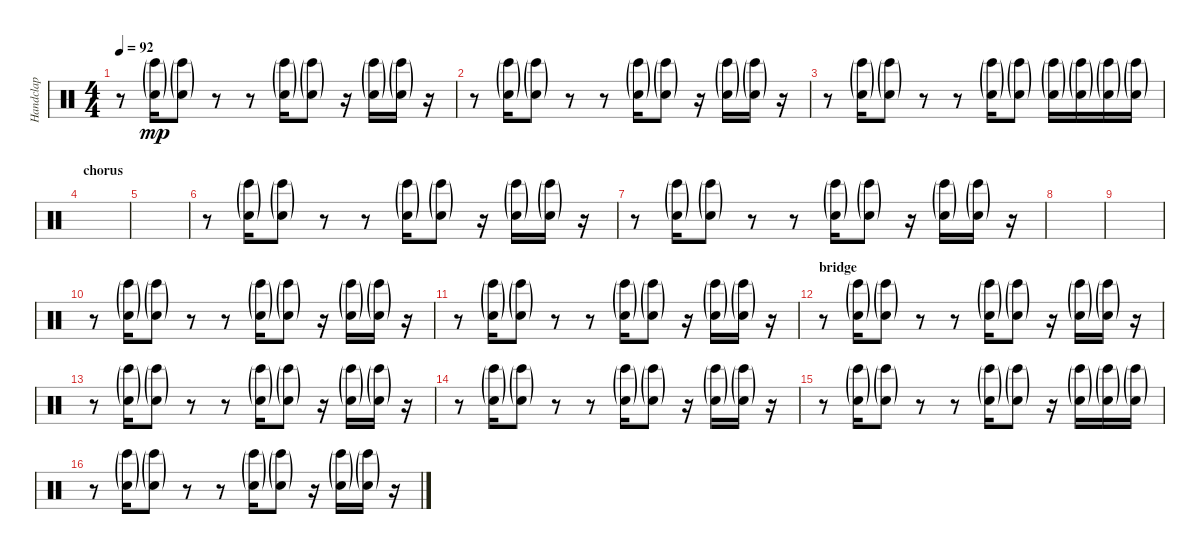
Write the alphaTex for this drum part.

\track ("Handclap" "Handclap") {instrument percussion}
\staff {score}
\articulation defaults
\ts (4 4)
\tempo 92
\clef neutral
\ks c
r.8{dy mp} ("Hand Clap (hit)"{g} "Bongo High (hit)"{g}).16 ("Hand Clap (hit)"{g} "Bongo High (hit)"{g}).8 r.8 r.8 ("Hand Clap (hit)"{g} "Bongo High (hit)"{g}).16 ("Hand Clap (hit)"{g} "Bongo High (hit)"{g}).8 r.16 ("Hand Clap (hit)"{g} "Bongo High (hit)"{g}).16 ("Hand Clap (hit)"{g} "Bongo High (hit)"{g}).16 r.16 |
r.8 ("Hand Clap (hit)"{g} "Bongo High (hit)"{g}).16 ("Hand Clap (hit)"{g} "Bongo High (hit)"{g}).8 r.8 r.8 ("Hand Clap (hit)"{g} "Bongo High (hit)"{g}).16 ("Hand Clap (hit)"{g} "Bongo High (hit)"{g}).8 r.16 ("Hand Clap (hit)"{g} "Bongo High (hit)"{g}).16 ("Hand Clap (hit)"{g} "Bongo High (hit)"{g}).16 r.16 |
r.8 ("Hand Clap (hit)"{g} "Bongo High (hit)"{g}).16 ("Hand Clap (hit)"{g} "Bongo High (hit)"{g}).8 r.8 r.8 ("Hand Clap (hit)"{g} "Bongo High (hit)"{g}).16 ("Hand Clap (hit)"{g} "Bongo High (hit)"{g}).8 ("Hand Clap (hit)"{g} "Bongo High (hit)"{g}).16 ("Hand Clap (hit)"{g} "Bongo High (hit)"{g}).16 ("Hand Clap (hit)"{g} "Bongo High (hit)"{g}).16 ("Hand Clap (hit)"{g} "Bongo High (hit)"{g}).16 |
\section ("" "chorus")
|
|
r.8 ("Hand Clap (hit)"{g} "Bongo High (hit)"{g}).16 ("Hand Clap (hit)"{g} "Bongo High (hit)"{g}).8 r.8 r.8 ("Hand Clap (hit)"{g} "Bongo High (hit)"{g}).16 ("Hand Clap (hit)"{g} "Bongo High (hit)"{g}).8 r.16 ("Hand Clap (hit)"{g} "Bongo High (hit)"{g}).16 ("Hand Clap (hit)"{g} "Bongo High (hit)"{g}).16 r.16 |
r.8 ("Hand Clap (hit)"{g} "Bongo High (hit)"{g}).16 ("Hand Clap (hit)"{g} "Bongo High (hit)"{g}).8 r.8 r.8 ("Hand Clap (hit)"{g} "Bongo High (hit)"{g}).16 ("Hand Clap (hit)"{g} "Bongo High (hit)"{g}).8 r.16 ("Hand Clap (hit)"{g} "Bongo High (hit)"{g}).16 ("Hand Clap (hit)"{g} "Bongo High (hit)"{g}).16 r.16 |
|
|
r.8 ("Hand Clap (hit)"{g} "Bongo High (hit)"{g}).16 ("Hand Clap (hit)"{g} "Bongo High (hit)"{g}).8 r.8 r.8 ("Hand Clap (hit)"{g} "Bongo High (hit)"{g}).16 ("Hand Clap (hit)"{g} "Bongo High (hit)"{g}).8 r.16 ("Hand Clap (hit)"{g} "Bongo High (hit)"{g}).16 ("Hand Clap (hit)"{g} "Bongo High (hit)"{g}).16 r.16 |
r.8 ("Hand Clap (hit)"{g} "Bongo High (hit)"{g}).16 ("Hand Clap (hit)"{g} "Bongo High (hit)"{g}).8 r.8 r.8 ("Hand Clap (hit)"{g} "Bongo High (hit)"{g}).16 ("Hand Clap (hit)"{g} "Bongo High (hit)"{g}).8 r.16 ("Hand Clap (hit)"{g} "Bongo High (hit)"{g}).16 ("Hand Clap (hit)"{g} "Bongo High (hit)"{g}).16 r.16 |
\section ("" "bridge")
r.8 ("Hand Clap (hit)"{g} "Bongo High (hit)"{g}).16 ("Hand Clap (hit)"{g} "Bongo High (hit)"{g}).8 r.8 r.8 ("Hand Clap (hit)"{g} "Bongo High (hit)"{g}).16 ("Hand Clap (hit)"{g} "Bongo High (hit)"{g}).8 r.16 ("Hand Clap (hit)"{g} "Bongo High (hit)"{g}).16 ("Hand Clap (hit)"{g} "Bongo High (hit)"{g}).16 r.16 |
r.8 ("Hand Clap (hit)"{g} "Bongo High (hit)"{g}).16 ("Hand Clap (hit)"{g} "Bongo High (hit)"{g}).8 r.8 r.8 ("Hand Clap (hit)"{g} "Bongo High (hit)"{g}).16 ("Hand Clap (hit)"{g} "Bongo High (hit)"{g}).8 r.16 ("Hand Clap (hit)"{g} "Bongo High (hit)"{g}).16 ("Hand Clap (hit)"{g} "Bongo High (hit)"{g}).16 r.16 |
r.8 ("Hand Clap (hit)"{g} "Bongo High (hit)"{g}).16 ("Hand Clap (hit)"{g} "Bongo High (hit)"{g}).8 r.8 r.8 ("Hand Clap (hit)"{g} "Bongo High (hit)"{g}).16 ("Hand Clap (hit)"{g} "Bongo High (hit)"{g}).8 r.16 ("Hand Clap (hit)"{g} "Bongo High (hit)"{g}).16 ("Hand Clap (hit)"{g} "Bongo High (hit)"{g}).16 r.16 |
r.8 ("Hand Clap (hit)"{g} "Bongo High (hit)"{g}).16 ("Hand Clap (hit)"{g} "Bongo High (hit)"{g}).8 r.8 r.8 ("Hand Clap (hit)"{g} "Bongo High (hit)"{g}).16 ("Hand Clap (hit)"{g} "Bongo High (hit)"{g}).8 r.16 ("Hand Clap (hit)"{g} "Bongo High (hit)"{g}).16 ("Hand Clap (hit)"{g} "Bongo High (hit)"{g}).16 ("Hand Clap (hit)"{g} "Bongo High (hit)"{g}).16 |
r.8 ("Hand Clap (hit)"{g} "Bongo High (hit)"{g}).16 ("Hand Clap (hit)"{g} "Bongo High (hit)"{g}).8 r.8 r.8 ("Hand Clap (hit)"{g} "Bongo High (hit)"{g}).16 ("Hand Clap (hit)"{g} "Bongo High (hit)"{g}).8 r.16 ("Hand Clap (hit)"{g} "Bongo High (hit)"{g}).16 ("Hand Clap (hit)"{g} "Bongo High (hit)"{g}).16 r.16
